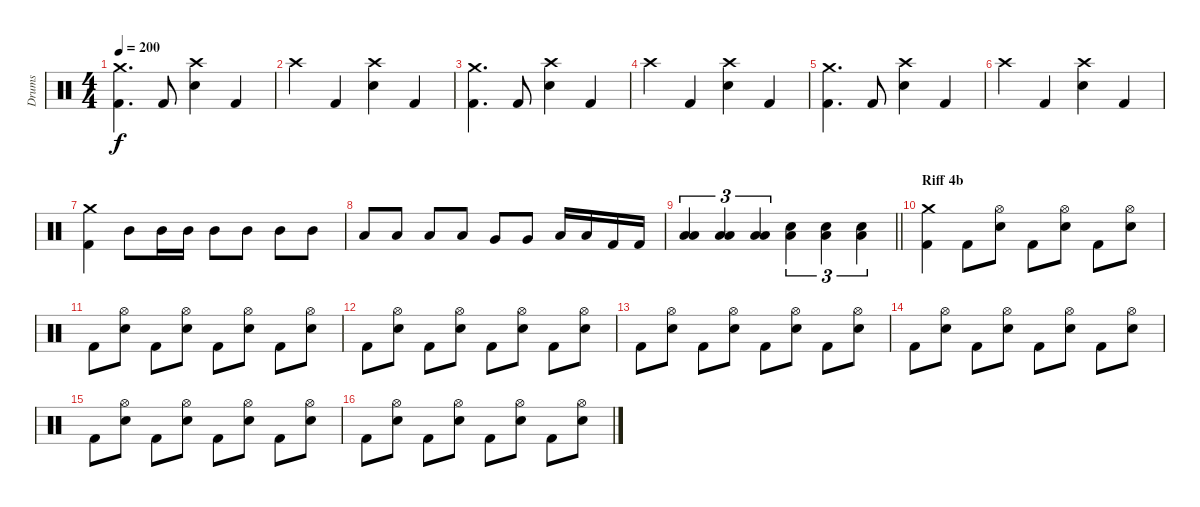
\track ("Drums" "Drums") {instrument percussion}
\staff {score}
\articulation defaults
\ts (4 4)
\tempo 200
\clef neutral
\ks c
("Crash medium (hit)" "Kick (hit) 2").4{d dy f} "Kick (hit) 2".8 ("Crash high (hit)" "Electric Snare (hit)").4 "Kick (hit) 2".4 |
"Crash high (hit)".4 "Kick (hit) 2".4 ("Crash high (hit)" "Electric Snare (hit)").4 "Kick (hit) 2".4 |
("Crash medium (hit)" "Kick (hit) 2").4{d} "Kick (hit) 2".8 ("Crash high (hit)" "Electric Snare (hit)").4 "Kick (hit) 2".4 |
"Crash high (hit)".4 "Kick (hit) 2".4 ("Crash high (hit)" "Electric Snare (hit)").4 "Kick (hit) 2".4 |
("Crash medium (hit)" "Kick (hit) 2").4{d} "Kick (hit) 2".8 ("Crash high (hit)" "Electric Snare (hit)").4 "Kick (hit) 2".4 |
"Crash high (hit)".4 "Kick (hit) 2".4 ("Crash high (hit)" "Electric Snare (hit)").4 "Kick (hit) 2".4 |
("Crash medium (hit)" "Kick (hit) 2").4 "Mid Tom (hit)".8 "Mid Tom (hit)".16 "Mid Tom (hit)".16 "Mid Tom (hit)".8 "Mid Tom (hit)".8 "Mid Tom (hit)".8 "Mid Tom (hit)".8 |
"Low Tom (hit)".8 "Low Tom (hit)".8 "Low Tom (hit)".8 "Low Tom (hit)".8 "Very Low Tom (hit)".8 "Very Low Tom (hit)".8 "Low Floor Tom (hit)".16 "Low Floor Tom (hit)".16 "Kick (hit) 2".16 "Kick (hit) 2".16 |
\barLineRight lightlight
("Low Tom (hit)" "Low Floor Tom (hit)").4{tu (3 2)} ("Low Tom (hit)" "Low Floor Tom (hit)").4{tu (3 2)} ("Low Tom (hit)" "Low Floor Tom (hit)").4{tu (3 2)} ("Electric Snare (hit)" "Low Floor Tom (hit)").4{tu (3 2)} ("Electric Snare (hit)" "Low Floor Tom (hit)").4{tu (3 2)} ("Electric Snare (hit)" "Low Floor Tom (hit)").4{tu (3 2)} |
\section ("" "Riff 4b")
("Crash medium (hit)" "Kick (hit) 2").4 "Kick (hit) 2".8 ("Hi-Hat (open)" "Electric Snare (hit)").8 "Kick (hit) 2".8 ("Electric Snare (hit)" "Hi-Hat (open)").8 "Kick (hit) 2".8 ("Hi-Hat (open)" "Electric Snare (hit)").8 |
"Kick (hit) 2".8 ("Electric Snare (hit)" "Hi-Hat (open)").8 "Kick (hit) 2".8 ("Hi-Hat (open)" "Electric Snare (hit)").8 "Kick (hit) 2".8 ("Electric Snare (hit)" "Hi-Hat (open)").8 "Kick (hit) 2".8 ("Hi-Hat (open)" "Electric Snare (hit)").8 |
"Kick (hit) 2".8 ("Electric Snare (hit)" "Hi-Hat (open)").8 "Kick (hit) 2".8 ("Hi-Hat (open)" "Electric Snare (hit)").8 "Kick (hit) 2".8 ("Electric Snare (hit)" "Hi-Hat (open)").8 "Kick (hit) 2".8 ("Hi-Hat (open)" "Electric Snare (hit)").8 |
"Kick (hit) 2".8 ("Electric Snare (hit)" "Hi-Hat (open)").8 "Kick (hit) 2".8 ("Hi-Hat (open)" "Electric Snare (hit)").8 "Kick (hit) 2".8 ("Electric Snare (hit)" "Hi-Hat (open)").8 "Kick (hit) 2".8 ("Hi-Hat (open)" "Electric Snare (hit)").8 |
"Kick (hit) 2".8 ("Electric Snare (hit)" "Hi-Hat (open)").8 "Kick (hit) 2".8 ("Hi-Hat (open)" "Electric Snare (hit)").8 "Kick (hit) 2".8 ("Electric Snare (hit)" "Hi-Hat (open)").8 "Kick (hit) 2".8 ("Hi-Hat (open)" "Electric Snare (hit)").8 |
"Kick (hit) 2".8 ("Electric Snare (hit)" "Hi-Hat (open)").8 "Kick (hit) 2".8 ("Hi-Hat (open)" "Electric Snare (hit)").8 "Kick (hit) 2".8 ("Electric Snare (hit)" "Hi-Hat (open)").8 "Kick (hit) 2".8 ("Hi-Hat (open)" "Electric Snare (hit)").8 |
"Kick (hit) 2".8 ("Electric Snare (hit)" "Hi-Hat (open)").8 "Kick (hit) 2".8 ("Hi-Hat (open)" "Electric Snare (hit)").8 "Kick (hit) 2".8 ("Electric Snare (hit)" "Hi-Hat (open)").8 "Kick (hit) 2".8 ("Hi-Hat (open)" "Electric Snare (hit)").8
